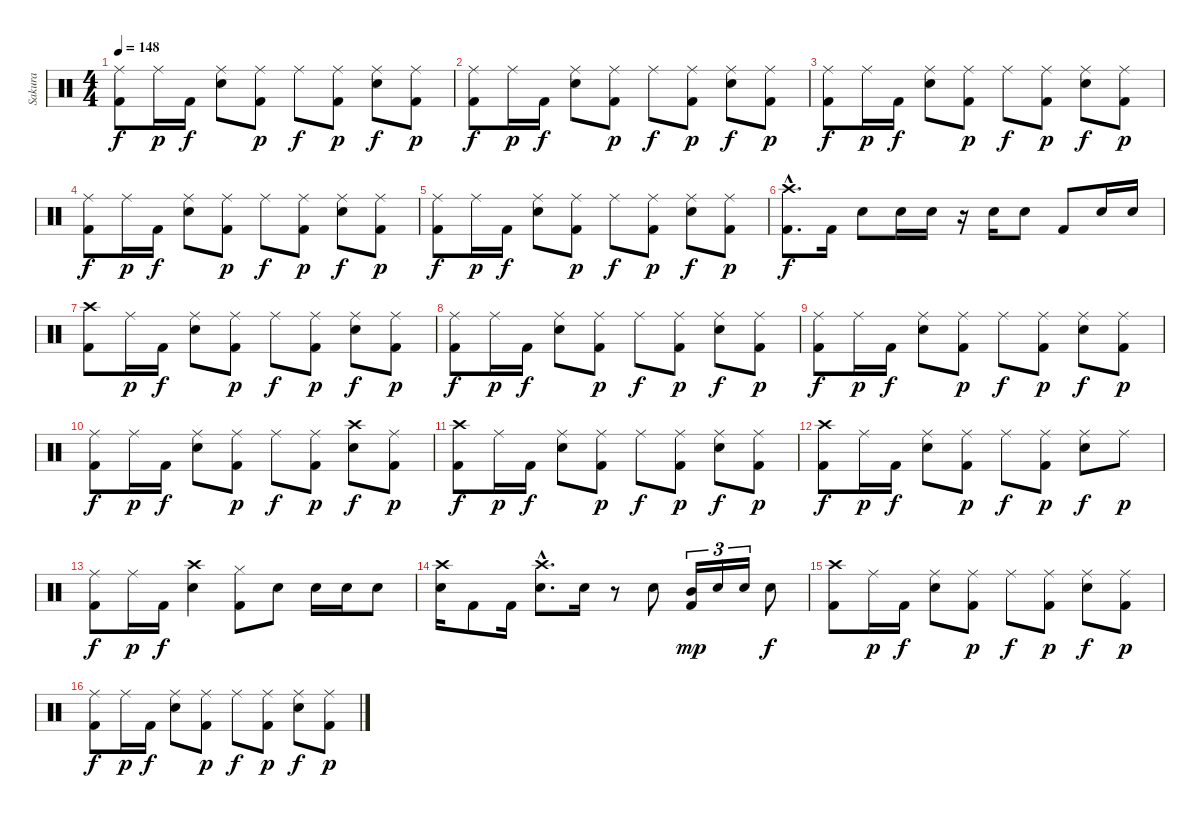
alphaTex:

\track ("Sakura" "Sakura") {instrument percussion}
\staff {score}
\articulation defaults
\ts (4 4)
\tempo 148
\clef neutral
\ks c
("Ride (middle)" "Kick (hit) 2").8{dy f} "Ride (middle)".16{dy p} "Kick (hit) 2".16{dy f} ("Ride (middle)" "Electric Snare (hit)").8 ("Ride (middle)" "Kick (hit) 2").8{dy p} "Ride (middle)".8{dy f} ("Ride (middle)" "Kick (hit) 2").8{dy p} ("Ride (middle)" "Electric Snare (hit)").8{dy f} ("Ride (middle)" "Kick (hit) 2").8{dy p} |
("Ride (middle)" "Kick (hit) 2").8{dy f} "Ride (middle)".16{dy p} "Kick (hit) 2".16{dy f} ("Ride (middle)" "Electric Snare (hit)").8 ("Ride (middle)" "Kick (hit) 2").8{dy p} "Ride (middle)".8{dy f} ("Ride (middle)" "Kick (hit) 2").8{dy p} ("Ride (middle)" "Electric Snare (hit)").8{dy f} ("Ride (middle)" "Kick (hit) 2").8{dy p} |
("Ride (middle)" "Kick (hit) 2").8{dy f} "Ride (middle)".16{dy p} "Kick (hit) 2".16{dy f} ("Ride (middle)" "Electric Snare (hit)").8 ("Ride (middle)" "Kick (hit) 2").8{dy p} "Ride (middle)".8{dy f} ("Ride (middle)" "Kick (hit) 2").8{dy p} ("Ride (middle)" "Electric Snare (hit)").8{dy f} ("Ride (middle)" "Kick (hit) 2").8{dy p} |
("Ride (middle)" "Kick (hit) 2").8{dy f} "Ride (middle)".16{dy p} "Kick (hit) 2".16{dy f} ("Ride (middle)" "Electric Snare (hit)").8 ("Ride (middle)" "Kick (hit) 2").8{dy p} "Ride (middle)".8{dy f} ("Ride (middle)" "Kick (hit) 2").8{dy p} ("Ride (middle)" "Electric Snare (hit)").8{dy f} ("Ride (middle)" "Kick (hit) 2").8{dy p} |
("Ride (middle)" "Kick (hit) 2").8{dy f} "Ride (middle)".16{dy p} "Kick (hit) 2".16{dy f} ("Ride (middle)" "Electric Snare (hit)").8 ("Ride (middle)" "Kick (hit) 2").8{dy p} "Ride (middle)".8{dy f} ("Ride (middle)" "Kick (hit) 2").8{dy p} ("Ride (middle)" "Electric Snare (hit)").8{dy f} ("Ride (middle)" "Kick (hit) 2").8{dy p} |
("Crash high (hit)"{hac} "Kick (hit) 2"{hac}).8{d dy f} "Kick (hit) 2".16 "Electric Snare (hit)".8 "Electric Snare (hit)".16 "Electric Snare (hit)".16 r.16 "Electric Snare (hit)".16 "Electric Snare (hit)".8 "Kick (hit) 2".8 "Electric Snare (hit)".16 "Electric Snare (hit)".16 |
("Crash high (hit)" "Kick (hit) 2").8 "Ride (middle)".16{dy p} "Kick (hit) 2".16{dy f} ("Ride (middle)" "Electric Snare (hit)").8 ("Ride (middle)" "Kick (hit) 2").8{dy p} "Ride (middle)".8{dy f} ("Ride (middle)" "Kick (hit) 2").8{dy p} ("Ride (middle)" "Electric Snare (hit)").8{dy f} ("Ride (middle)" "Kick (hit) 2").8{dy p} |
("Ride (middle)" "Kick (hit) 2").8{dy f} "Ride (middle)".16{dy p} "Kick (hit) 2".16{dy f} ("Ride (middle)" "Electric Snare (hit)").8 ("Ride (middle)" "Kick (hit) 2").8{dy p} "Ride (middle)".8{dy f} ("Ride (middle)" "Kick (hit) 2").8{dy p} ("Ride (middle)" "Electric Snare (hit)").8{dy f} ("Ride (middle)" "Kick (hit) 2").8{dy p} |
("Ride (middle)" "Kick (hit) 2").8{dy f} "Ride (middle)".16{dy p} "Kick (hit) 2".16{dy f} ("Ride (middle)" "Electric Snare (hit)").8 ("Ride (middle)" "Kick (hit) 2").8{dy p} "Ride (middle)".8{dy f} ("Ride (middle)" "Kick (hit) 2").8{dy p} ("Ride (middle)" "Electric Snare (hit)").8{dy f} ("Ride (middle)" "Kick (hit) 2").8{dy p} |
("Ride (middle)" "Kick (hit) 2").8{dy f} "Ride (middle)".16{dy p} "Kick (hit) 2".16{dy f} ("Ride (middle)" "Electric Snare (hit)").8 ("Ride (middle)" "Kick (hit) 2").8{dy p} "Ride (middle)".8{dy f} ("Ride (middle)" "Kick (hit) 2").8{dy p} ("Crash high (hit)" "Electric Snare (hit)").8{dy f} ("Ride (middle)" "Kick (hit) 2").8{dy p} |
("Crash high (hit)" "Kick (hit) 2").8{dy f} "Ride (middle)".16{dy p} "Kick (hit) 2".16{dy f} ("Ride (middle)" "Electric Snare (hit)").8 ("Ride (middle)" "Kick (hit) 2").8{dy p} "Ride (middle)".8{dy f} ("Ride (middle)" "Kick (hit) 2").8{dy p} ("Ride (middle)" "Electric Snare (hit)").8{dy f} ("Ride (middle)" "Kick (hit) 2").8{dy p} |
("Crash high (hit)" "Kick (hit) 2").8{dy f} "Ride (middle)".16{dy p} "Kick (hit) 2".16{dy f} ("Ride (middle)" "Electric Snare (hit)").8 ("Ride (middle)" "Kick (hit) 2").8{dy p} "Ride (middle)".8{dy f} ("Ride (middle)" "Kick (hit) 2").8{dy p} ("Ride (middle)" "Electric Snare (hit)").8{dy f} "Ride (middle)".8{dy p} |
("Ride (middle)" "Kick (hit) 2").8{dy f} "Ride (middle)".16{dy p} "Kick (hit) 2".16{dy f} ("Crash high (hit)" "Electric Snare (hit)").4 ("Hi-Hat (closed)" "Kick (hit) 2").8 "Electric Snare (hit)".8 "Electric Snare (hit)".16 "Electric Snare (hit)".16 "Electric Snare (hit)".8 |
("Crash high (hit)" "Electric Snare (hit)").16 "Kick (hit) 2".8 "Kick (hit) 2".16 ("Crash high (hit)"{hac} "Electric Snare (hit)"{hac}).8{d} "Electric Snare (hit)".16 r.8 "Electric Snare (hit)".8 ("Mid Tom (hit)" "Kick (hit) 2").16{tu (3 2) dy mp} "Electric Snare (hit)".16{tu (3 2)} "Electric Snare (hit)".16{tu (3 2)} "Electric Snare (hit)".8{dy f} |
("Crash high (hit)" "Kick (hit) 2").8 "Ride (middle)".16{dy p} "Kick (hit) 2".16{dy f} ("Ride (middle)" "Electric Snare (hit)").8 ("Ride (middle)" "Kick (hit) 2").8{dy p} "Ride (middle)".8{dy f} ("Ride (middle)" "Kick (hit) 2").8{dy p} ("Ride (middle)" "Electric Snare (hit)").8{dy f} ("Ride (middle)" "Kick (hit) 2").8{dy p} |
("Ride (middle)" "Kick (hit) 2").8{dy f} "Ride (middle)".16{dy p} "Kick (hit) 2".16{dy f} ("Ride (middle)" "Electric Snare (hit)").8 ("Ride (middle)" "Kick (hit) 2").8{dy p} "Ride (middle)".8{dy f} ("Ride (middle)" "Kick (hit) 2").8{dy p} ("Ride (middle)" "Electric Snare (hit)").8{dy f} ("Ride (middle)" "Kick (hit) 2").8{dy p}
